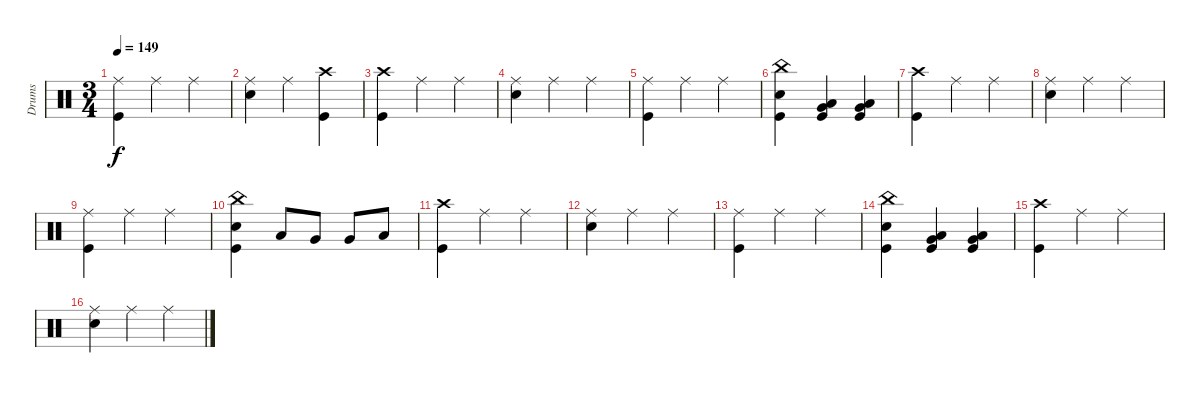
\track ("Drums" "Drums") {instrument percussion}
\staff {score}
\articulation defaults
\ts (3 4)
\tempo 149
\clef neutral
\ks c
("Kick (hit)" "Ride (middle)").4{dy f} "Ride (middle)".4 "Ride (middle)".4 |
("Snare (hit) 2" "Ride (middle)").4 "Ride (middle)".4 ("Kick (hit)" "Crash high (hit)").4 |
("Kick (hit)" "Crash high (hit)").4 "Ride (middle)".4 "Ride (middle)".4 |
("Snare (hit) 2" "Ride (middle)").4 "Ride (middle)".4 "Ride (middle)".4 |
("Kick (hit)" "Ride (middle)").4 "Ride (middle)".4 "Ride (middle)".4 |
("Snare (hit) 2" "China (hit)" "Kick (hit)").4 ("Kick (hit)" "Very Low Tom (hit)" "Low Tom (hit)").4 ("Very Low Tom (hit)" "Low Floor Tom (hit)" "Kick (hit)").4 |
("Kick (hit)" "Crash high (hit)").4 "Ride (middle)".4 "Ride (middle)".4 |
("Snare (hit) 2" "Ride (middle)").4 "Ride (middle)".4 "Ride (middle)".4 |
("Kick (hit)" "Ride (middle)").4 "Ride (middle)".4 "Ride (middle)".4 |
("Snare (hit) 2" "China (hit)" "Kick (hit)").4 "Low Tom (hit)".8 "Very Low Tom (hit)".8 "Very Low Tom (hit)".8 "Low Floor Tom (hit)".8 |
("Kick (hit)" "Crash high (hit)").4 "Ride (middle)".4 "Ride (middle)".4 |
("Snare (hit) 2" "Ride (middle)").4 "Ride (middle)".4 "Ride (middle)".4 |
("Kick (hit)" "Ride (middle)").4 "Ride (middle)".4 "Ride (middle)".4 |
("Snare (hit) 2" "China (hit)" "Kick (hit)").4 ("Kick (hit)" "Very Low Tom (hit)" "Low Tom (hit)").4 ("Very Low Tom (hit)" "Low Floor Tom (hit)" "Kick (hit)").4 |
("Kick (hit)" "Crash high (hit)").4 "Ride (middle)".4 "Ride (middle)".4 |
("Snare (hit) 2" "Ride (middle)").4 "Ride (middle)".4 "Ride (middle)".4
